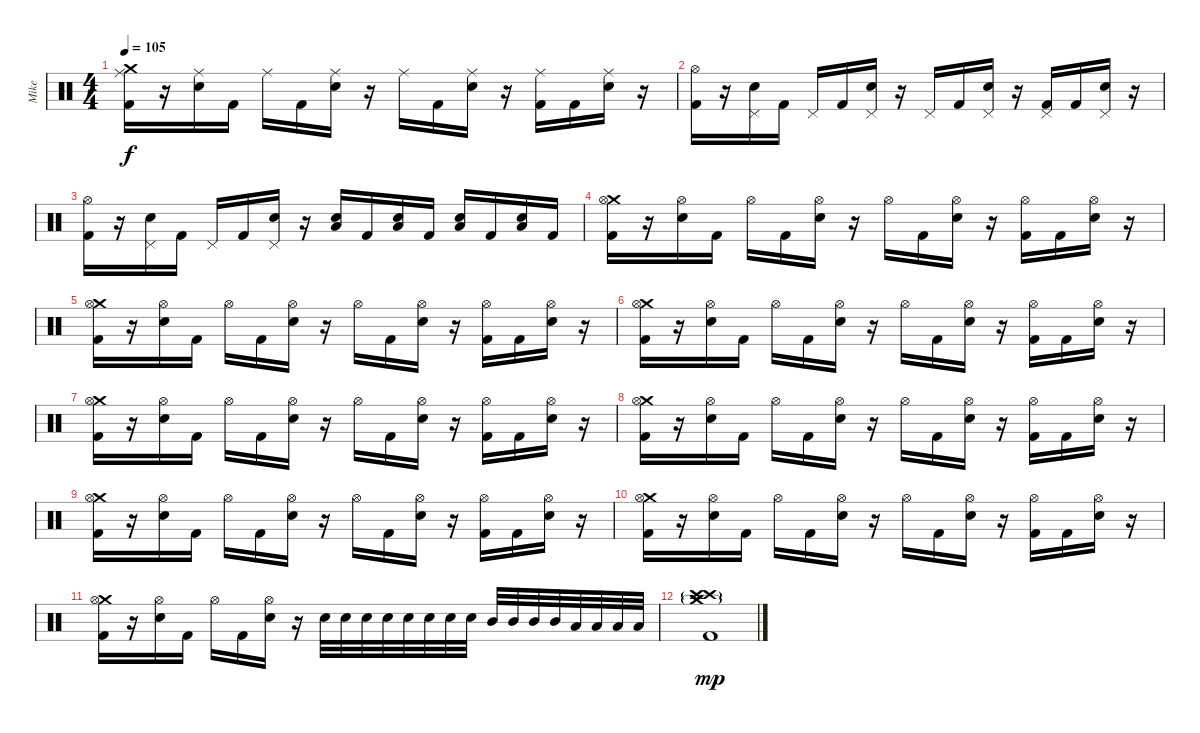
\track ("Mike" "Mike") {instrument percussion}
\staff {score}
\articulation defaults
\ts (4 4)
\tempo 105
\clef neutral
\ks c
("Crash medium (hit)" "Ride (middle)" "Kick (hit) 2").16{dy f} r.16 ("Ride (middle)" "Electric Snare (hit)").16 "Kick (hit) 2".16 "Ride (middle)".16 "Kick (hit) 2".16 ("Ride (middle)" "Electric Snare (hit)").16 r.16 "Ride (middle)".16 "Kick (hit) 2".16 ("Ride (middle)" "Electric Snare (hit)").16 r.16 ("Ride (middle)" "Kick (hit) 2").16 "Kick (hit) 2".16 ("Ride (middle)" "Electric Snare (hit)").16 r.16 |
("Hi-Hat (open)" "Kick (hit) 2").16 r.16 ("Pedal Hi-Hat (hit)" "Electric Snare (hit)").16 "Kick (hit) 2".16 "Pedal Hi-Hat (hit)".16 "Kick (hit) 2".16 ("Pedal Hi-Hat (hit)" "Electric Snare (hit)").16 r.16 "Pedal Hi-Hat (hit)".16 "Kick (hit) 2".16 ("Pedal Hi-Hat (hit)" "Electric Snare (hit)").16 r.16 ("Pedal Hi-Hat (hit)" "Kick (hit) 2").16 "Kick (hit) 2".16 ("Pedal Hi-Hat (hit)" "Electric Snare (hit)").16 r.16 |
("Hi-Hat (open)" "Kick (hit) 2").16 r.16 ("Pedal Hi-Hat (hit)" "Electric Snare (hit)").16 "Kick (hit) 2".16 "Pedal Hi-Hat (hit)".16 "Kick (hit) 2".16 ("Pedal Hi-Hat (hit)" "Electric Snare (hit)").16 r.16 ("Low Tom (hit)" "Electric Snare (hit)").16 "Kick (hit) 2".16 ("Low Tom (hit)" "Electric Snare (hit)").16 "Kick (hit) 2".16 ("Low Tom (hit)" "Electric Snare (hit)").16 "Kick (hit) 2".16 ("Low Tom (hit)" "Electric Snare (hit)").16 "Kick (hit) 2".16 |
("Crash medium (hit)" "Hi-Hat (open)" "Kick (hit) 2").16 r.16 ("Hi-Hat (open)" "Electric Snare (hit)").16 "Kick (hit) 2".16 "Hi-Hat (open)".16 "Kick (hit) 2".16 ("Hi-Hat (open)" "Electric Snare (hit)").16 r.16 "Hi-Hat (open)".16 "Kick (hit) 2".16 ("Hi-Hat (open)" "Electric Snare (hit)").16 r.16 ("Hi-Hat (open)" "Kick (hit) 2").16 "Kick (hit) 2".16 ("Hi-Hat (open)" "Electric Snare (hit)").16 r.16 |
("Crash medium (hit)" "Hi-Hat (open)" "Kick (hit) 2").16 r.16 ("Hi-Hat (open)" "Electric Snare (hit)").16 "Kick (hit) 2".16 "Hi-Hat (open)".16 "Kick (hit) 2".16 ("Hi-Hat (open)" "Electric Snare (hit)").16 r.16 "Hi-Hat (open)".16 "Kick (hit) 2".16 ("Hi-Hat (open)" "Electric Snare (hit)").16 r.16 ("Hi-Hat (open)" "Kick (hit) 2").16 "Kick (hit) 2".16 ("Hi-Hat (open)" "Electric Snare (hit)").16 r.16 |
("Crash medium (hit)" "Hi-Hat (open)" "Kick (hit) 2").16 r.16 ("Hi-Hat (open)" "Electric Snare (hit)").16 "Kick (hit) 2".16 "Hi-Hat (open)".16 "Kick (hit) 2".16 ("Hi-Hat (open)" "Electric Snare (hit)").16 r.16 "Hi-Hat (open)".16 "Kick (hit) 2".16 ("Hi-Hat (open)" "Electric Snare (hit)").16 r.16 ("Hi-Hat (open)" "Kick (hit) 2").16 "Kick (hit) 2".16 ("Hi-Hat (open)" "Electric Snare (hit)").16 r.16 |
("Crash medium (hit)" "Hi-Hat (open)" "Kick (hit) 2").16 r.16 ("Hi-Hat (open)" "Electric Snare (hit)").16 "Kick (hit) 2".16 "Hi-Hat (open)".16 "Kick (hit) 2".16 ("Hi-Hat (open)" "Electric Snare (hit)").16 r.16 "Hi-Hat (open)".16 "Kick (hit) 2".16 ("Hi-Hat (open)" "Electric Snare (hit)").16 r.16 ("Hi-Hat (open)" "Kick (hit) 2").16 "Kick (hit) 2".16 ("Hi-Hat (open)" "Electric Snare (hit)").16 r.16 |
("Crash medium (hit)" "Hi-Hat (open)" "Kick (hit) 2").16 r.16 ("Hi-Hat (open)" "Electric Snare (hit)").16 "Kick (hit) 2".16 "Hi-Hat (open)".16 "Kick (hit) 2".16 ("Hi-Hat (open)" "Electric Snare (hit)").16 r.16 "Hi-Hat (open)".16 "Kick (hit) 2".16 ("Hi-Hat (open)" "Electric Snare (hit)").16 r.16 ("Hi-Hat (open)" "Kick (hit) 2").16 "Kick (hit) 2".16 ("Hi-Hat (open)" "Electric Snare (hit)").16 r.16 |
("Crash medium (hit)" "Hi-Hat (open)" "Kick (hit) 2").16 r.16 ("Hi-Hat (open)" "Electric Snare (hit)").16 "Kick (hit) 2".16 "Hi-Hat (open)".16 "Kick (hit) 2".16 ("Hi-Hat (open)" "Electric Snare (hit)").16 r.16 "Hi-Hat (open)".16 "Kick (hit) 2".16 ("Hi-Hat (open)" "Electric Snare (hit)").16 r.16 ("Hi-Hat (open)" "Kick (hit) 2").16 "Kick (hit) 2".16 ("Hi-Hat (open)" "Electric Snare (hit)").16 r.16 |
("Crash medium (hit)" "Hi-Hat (open)" "Kick (hit) 2").16 r.16 ("Hi-Hat (open)" "Electric Snare (hit)").16 "Kick (hit) 2".16 "Hi-Hat (open)".16 "Kick (hit) 2".16 ("Hi-Hat (open)" "Electric Snare (hit)").16 r.16 "Hi-Hat (open)".16 "Kick (hit) 2".16 ("Hi-Hat (open)" "Electric Snare (hit)").16 r.16 ("Hi-Hat (open)" "Kick (hit) 2").16 "Kick (hit) 2".16 ("Hi-Hat (open)" "Electric Snare (hit)").16 r.16 |
("Crash medium (hit)" "Hi-Hat (open)" "Kick (hit) 2").16 r.16 ("Hi-Hat (open)" "Electric Snare (hit)").16 "Kick (hit) 2".16 "Hi-Hat (open)".16 "Kick (hit) 2".16 ("Hi-Hat (open)" "Electric Snare (hit)").16 r.16 "Electric Snare (hit)".32 "Electric Snare (hit)".32 "Electric Snare (hit)".32 "Electric Snare (hit)".32 "Electric Snare (hit)".32 "Electric Snare (hit)".32 "Electric Snare (hit)".32 "Electric Snare (hit)".32 "Mid Tom (hit)".32 "Mid Tom (hit)".32 "Mid Tom (hit)".32 "Mid Tom (hit)".32 "Low Tom (hit)".32 "Low Tom (hit)".32 "Low Tom (hit)".32 "Low Tom (hit)".32 |
("Crash high (hit)"{g} "Crash medium (hit)"{g} "Crash high (hit)" "Crash medium (hit)" "Kick (hit) 2").1{dy mp}
